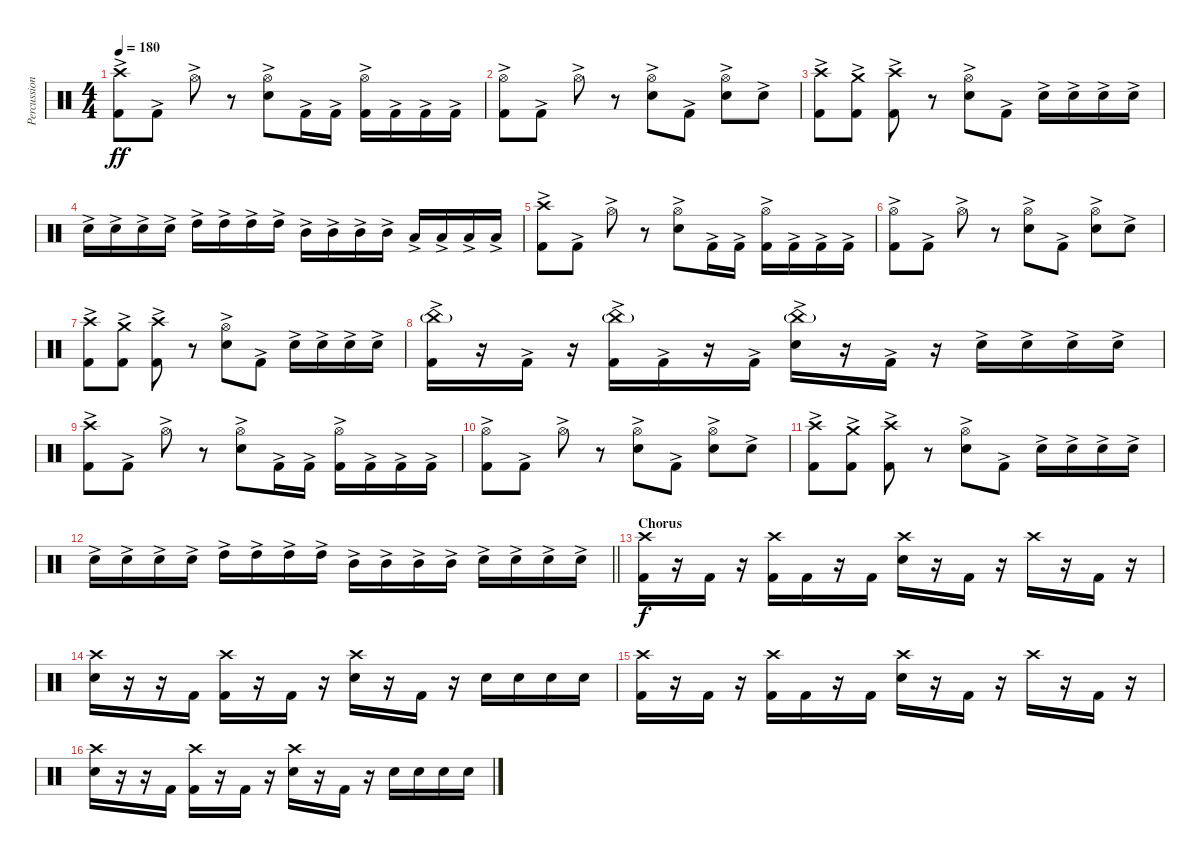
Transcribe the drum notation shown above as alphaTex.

\track ("Percussion" "Percussion") {instrument percussion}
\staff {score}
\articulation defaults
\ts (4 4)
\tempo 180
\clef neutral
\ks c
("Crash high (hit)"{ac} "Kick (hit) 2"{ac}).8{dy ff} "Kick (hit) 2"{ac}.8 "Hi-Hat (open)"{ac}.8 r.8 ("Hi-Hat (open)"{ac} "Electric Snare (hit)"{ac}).8 "Kick (hit) 2"{ac}.16 "Kick (hit) 2"{ac}.16 ("Hi-Hat (open)"{ac} "Kick (hit) 2"{ac}).16 "Kick (hit) 2"{ac}.16 "Kick (hit) 2"{ac}.16 "Kick (hit) 2"{ac}.16 |
("Hi-Hat (open)"{ac} "Kick (hit) 2"{ac}).8 "Kick (hit) 2"{ac}.8 "Hi-Hat (open)"{ac}.8 r.8 ("Hi-Hat (open)"{ac} "Electric Snare (hit)"{ac}).8 "Kick (hit) 2"{ac}.8 ("Hi-Hat (open)"{ac} "Electric Snare (hit)"{ac}).8 "Electric Snare (hit)"{ac}.8 |
("Crash high (hit)"{ac} "Kick (hit) 2"{ac}).8 ("Crash medium (hit)"{ac} "Kick (hit) 2"{ac}).8 ("Crash high (hit)"{ac} "Kick (hit) 2"{ac}).8 r.8 ("Hi-Hat (open)"{ac} "Electric Snare (hit)"{ac}).8 "Kick (hit) 2"{ac}.8 "Electric Snare (hit)"{ac}.16 "Electric Snare (hit)"{ac}.16 "Electric Snare (hit)"{ac}.16 "Electric Snare (hit)"{ac}.16 |
"Electric Snare (hit)"{ac}.16 "Electric Snare (hit)"{ac}.16 "Electric Snare (hit)"{ac}.16 "Electric Snare (hit)"{ac}.16 "High Tom (hit)"{ac}.16 "High Tom (hit)"{ac}.16 "High Tom (hit)"{ac}.16 "High Tom (hit)"{ac}.16 "Mid Tom (hit)"{ac}.16 "Mid Tom (hit)"{ac}.16 "Mid Tom (hit)"{ac}.16 "Mid Tom (hit)"{ac}.16 "Low Tom (hit)"{ac}.16 "Low Tom (hit)"{ac}.16 "Low Tom (hit)"{ac}.16 "Low Tom (hit)"{ac}.16 |
("Crash high (hit)"{ac} "Kick (hit) 2"{ac}).8 "Kick (hit) 2"{ac}.8 "Hi-Hat (open)"{ac}.8 r.8 ("Hi-Hat (open)"{ac} "Electric Snare (hit)"{ac}).8 "Kick (hit) 2"{ac}.16 "Kick (hit) 2"{ac}.16 ("Hi-Hat (open)"{ac} "Kick (hit) 2"{ac}).16 "Kick (hit) 2"{ac}.16 "Kick (hit) 2"{ac}.16 "Kick (hit) 2"{ac}.16 |
("Hi-Hat (open)"{ac} "Kick (hit) 2"{ac}).8 "Kick (hit) 2"{ac}.8 "Hi-Hat (open)"{ac}.8 r.8 ("Hi-Hat (open)"{ac} "Electric Snare (hit)"{ac}).8 "Kick (hit) 2"{ac}.8 ("Hi-Hat (open)"{ac} "Electric Snare (hit)"{ac}).8 "Electric Snare (hit)"{ac}.8 |
("Crash high (hit)"{ac} "Kick (hit) 2"{ac}).8 ("Crash medium (hit)"{ac} "Kick (hit) 2"{ac}).8 ("Crash high (hit)"{ac} "Kick (hit) 2"{ac}).8 r.8 ("Hi-Hat (open)"{ac} "Electric Snare (hit)"{ac}).8 "Kick (hit) 2"{ac}.8 "Electric Snare (hit)"{ac}.16 "Electric Snare (hit)"{ac}.16 "Electric Snare (hit)"{ac}.16 "Electric Snare (hit)"{ac}.16 |
("China (hit)"{g} "Kick (hit) 2"{ac}).16 r.16 "Kick (hit) 2"{ac}.16 r.16 ("China (hit)"{g} "Kick (hit) 2"{ac}).16 "Kick (hit) 2"{ac}.16 r.16 "Kick (hit) 2"{ac}.16 ("China (hit)"{g} "Electric Snare (hit)"{ac}).16 r.16 "Kick (hit) 2"{ac}.16 r.16 "Electric Snare (hit)"{ac}.16 "Electric Snare (hit)"{ac}.16 "Electric Snare (hit)"{ac}.16 "Electric Snare (hit)"{ac}.16 |
("Crash high (hit)"{ac} "Kick (hit) 2"{ac}).8 "Kick (hit) 2"{ac}.8 "Hi-Hat (open)"{ac}.8 r.8 ("Hi-Hat (open)"{ac} "Electric Snare (hit)"{ac}).8 "Kick (hit) 2"{ac}.16 "Kick (hit) 2"{ac}.16 ("Hi-Hat (open)"{ac} "Kick (hit) 2"{ac}).16 "Kick (hit) 2"{ac}.16 "Kick (hit) 2"{ac}.16 "Kick (hit) 2"{ac}.16 |
("Hi-Hat (open)"{ac} "Kick (hit) 2"{ac}).8 "Kick (hit) 2"{ac}.8 "Hi-Hat (open)"{ac}.8 r.8 ("Hi-Hat (open)"{ac} "Electric Snare (hit)"{ac}).8 "Kick (hit) 2"{ac}.8 ("Hi-Hat (open)"{ac} "Electric Snare (hit)"{ac}).8 "Electric Snare (hit)"{ac}.8 |
("Crash high (hit)"{ac} "Kick (hit) 2"{ac}).8 ("Crash medium (hit)"{ac} "Kick (hit) 2"{ac}).8 ("Crash high (hit)"{ac} "Kick (hit) 2"{ac}).8 r.8 ("Hi-Hat (open)"{ac} "Electric Snare (hit)"{ac}).8 "Kick (hit) 2"{ac}.8 "Electric Snare (hit)"{ac}.16 "Electric Snare (hit)"{ac}.16 "Electric Snare (hit)"{ac}.16 "Electric Snare (hit)"{ac}.16 |
\barLineRight lightlight "Electric Snare (hit)"{ac}.16 "Electric Snare (hit)"{ac}.16 "Electric Snare (hit)"{ac}.16 "Electric Snare (hit)"{ac}.16 "High Tom (hit)"{ac}.16 "High Tom (hit)"{ac}.16 "High Tom (hit)"{ac}.16 "High Tom (hit)"{ac}.16 "Mid Tom (hit)"{ac}.16 "Mid Tom (hit)"{ac}.16 "Mid Tom (hit)"{ac}.16 "Mid Tom (hit)"{ac}.16 "Electric Snare (hit)"{ac}.16 "Electric Snare (hit)"{ac}.16 "Electric Snare (hit)"{ac}.16 "Electric Snare (hit)"{ac}.16
|
\section ("" "Chorus")
("Crash high (hit)" "Kick (hit) 2").16{dy f} r.16 "Kick (hit) 2".16 r.16 ("Crash high (hit)" "Kick (hit) 2").16 "Kick (hit) 2".16 r.16 "Kick (hit) 2".16 ("Crash high (hit)" "Electric Snare (hit)").16 r.16 "Kick (hit) 2".16 r.16 "Crash high (hit)".16 r.16 "Kick (hit) 2".16 r.16 |
("Crash high (hit)" "Electric Snare (hit)").16 r.16 r.16 "Kick (hit) 2".16 ("Crash high (hit)" "Kick (hit) 2").16 r.16 "Kick (hit) 2".16 r.16 ("Crash high (hit)" "Electric Snare (hit)").16 r.16 "Kick (hit) 2".16 r.16 "Electric Snare (hit)".16 "Electric Snare (hit)".16 "Electric Snare (hit)".16 "Electric Snare (hit)".16 |
("Crash high (hit)" "Kick (hit) 2").16 r.16 "Kick (hit) 2".16 r.16 ("Crash high (hit)" "Kick (hit) 2").16 "Kick (hit) 2".16 r.16 "Kick (hit) 2".16 ("Crash high (hit)" "Electric Snare (hit)").16 r.16 "Kick (hit) 2".16 r.16 "Crash high (hit)".16 r.16 "Kick (hit) 2".16 r.16 |
("Crash high (hit)" "Electric Snare (hit)").16 r.16 r.16 "Kick (hit) 2".16 ("Crash high (hit)" "Kick (hit) 2").16 r.16 "Kick (hit) 2".16 r.16 ("Crash high (hit)" "Electric Snare (hit)").16 r.16 "Kick (hit) 2".16 r.16 "Electric Snare (hit)".16 "Electric Snare (hit)".16 "Electric Snare (hit)".16 "Electric Snare (hit)".16
